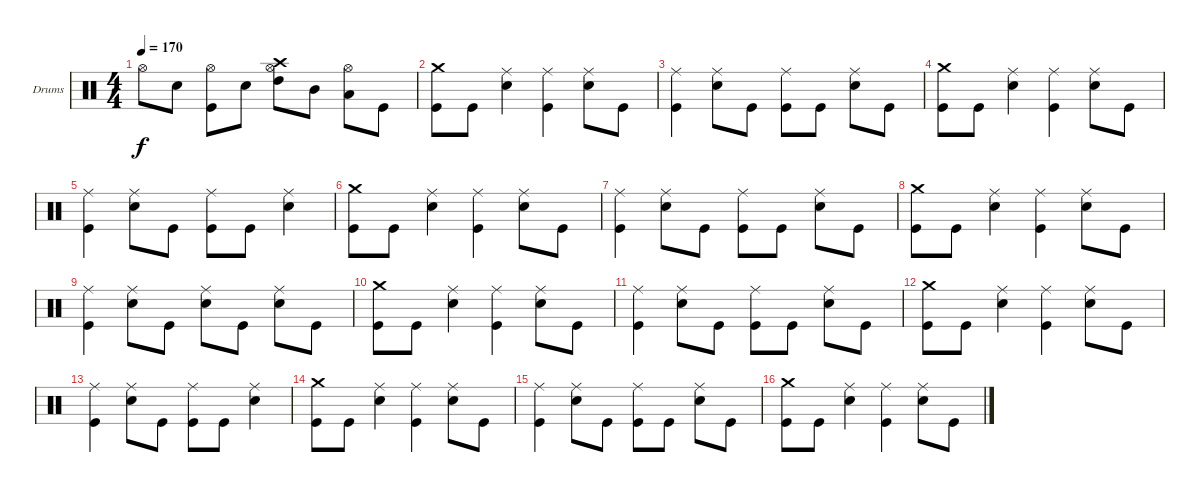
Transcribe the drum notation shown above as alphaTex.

\bracketExtendMode groupsimilarinstruments
\firstSystemTrackNameOrientation horizontal
\otherSystemsTrackNameOrientation horizontal
\track ("Drumkit" "Drums") {instrument percussion}
\staff {score}
\articulation defaults
\ts (4 4)
\tempo 170
\clef neutral
\ks c "Hi-Hat (open)".8{dy f} "Snare (hit) 2".8
("Hi-Hat (open)" "Kick (hit)").8 "Snare (hit) 2".8 ("Hi-Hat (open)" "Crash high (hit)" "High Tom (hit)").8 "Mid Tom (hit)".8 ("Hi-Hat (open)" "Low Tom (hit)").8 "Kick (hit)".8 |
("Crash medium (hit)" "Kick (hit)").8 "Kick (hit)".8 ("Ride (middle)" "Snare (hit) 2").4 ("Ride (middle)" "Kick (hit)").4 ("Ride (middle)" "Snare (hit) 2").8 "Kick (hit)".8 |
("Ride (middle)" "Kick (hit)").4 ("Ride (middle)" "Snare (hit) 2").8 "Kick (hit)".8 ("Ride (middle)" "Kick (hit)").8 "Kick (hit)".8 ("Ride (middle)" "Snare (hit) 2").8 "Kick (hit)".8 |
("Crash medium (hit)" "Kick (hit)").8 "Kick (hit)".8 ("Ride (middle)" "Snare (hit) 2").4 ("Ride (middle)" "Kick (hit)").4 ("Ride (middle)" "Snare (hit) 2").8 "Kick (hit)".8 |
("Ride (middle)" "Kick (hit)").4 ("Ride (middle)" "Snare (hit) 2").8 "Kick (hit)".8 ("Ride (middle)" "Kick (hit)").8 "Kick (hit)".8 ("Ride (middle)" "Snare (hit) 2").4 |
("Crash medium (hit)" "Kick (hit)").8 "Kick (hit)".8 ("Ride (middle)" "Snare (hit) 2").4 ("Ride (middle)" "Kick (hit)").4 ("Ride (middle)" "Snare (hit) 2").8 "Kick (hit)".8 |
("Ride (middle)" "Kick (hit)").4 ("Ride (middle)" "Snare (hit) 2").8 "Kick (hit)".8 ("Ride (middle)" "Kick (hit)").8 "Kick (hit)".8 ("Ride (middle)" "Snare (hit) 2").8 "Kick (hit)".8 |
("Crash medium (hit)" "Kick (hit)").8 "Kick (hit)".8 ("Ride (middle)" "Snare (hit) 2").4 ("Ride (middle)" "Kick (hit)").4 ("Ride (middle)" "Snare (hit) 2").8 "Kick (hit)".8 |
("Ride (middle)" "Kick (hit)").4 ("Ride (middle)" "Snare (hit) 2").8 "Kick (hit)".8 ("Ride (middle)" "Snare (hit) 2").8 "Kick (hit)".8 ("Ride (middle)" "Snare (hit) 2").8 "Kick (hit)".8 |
("Crash medium (hit)" "Kick (hit)").8 "Kick (hit)".8 ("Ride (middle)" "Snare (hit) 2").4 ("Ride (middle)" "Kick (hit)").4 ("Ride (middle)" "Snare (hit) 2").8 "Kick (hit)".8 |
("Ride (middle)" "Kick (hit)").4 ("Ride (middle)" "Snare (hit) 2").8 "Kick (hit)".8 ("Ride (middle)" "Kick (hit)").8 "Kick (hit)".8 ("Ride (middle)" "Snare (hit) 2").8 "Kick (hit)".8 |
("Crash medium (hit)" "Kick (hit)").8 "Kick (hit)".8 ("Ride (middle)" "Snare (hit) 2").4 ("Ride (middle)" "Kick (hit)").4 ("Ride (middle)" "Snare (hit) 2").8 "Kick (hit)".8 |
("Ride (middle)" "Kick (hit)").4 ("Ride (middle)" "Snare (hit) 2").8 "Kick (hit)".8 ("Ride (middle)" "Kick (hit)").8 "Kick (hit)".8 ("Ride (middle)" "Snare (hit) 2").4 |
("Crash medium (hit)" "Kick (hit)").8 "Kick (hit)".8 ("Ride (middle)" "Snare (hit) 2").4 ("Ride (middle)" "Kick (hit)").4 ("Ride (middle)" "Snare (hit) 2").8 "Kick (hit)".8 |
("Ride (middle)" "Kick (hit)").4 ("Ride (middle)" "Snare (hit) 2").8 "Kick (hit)".8 ("Ride (middle)" "Kick (hit)").8 "Kick (hit)".8 ("Ride (middle)" "Snare (hit) 2").8 "Kick (hit)".8 |
("Crash medium (hit)" "Kick (hit)").8 "Kick (hit)".8 ("Ride (middle)" "Snare (hit) 2").4 ("Ride (middle)" "Kick (hit)").4 ("Ride (middle)" "Snare (hit) 2").8 "Kick (hit)".8
